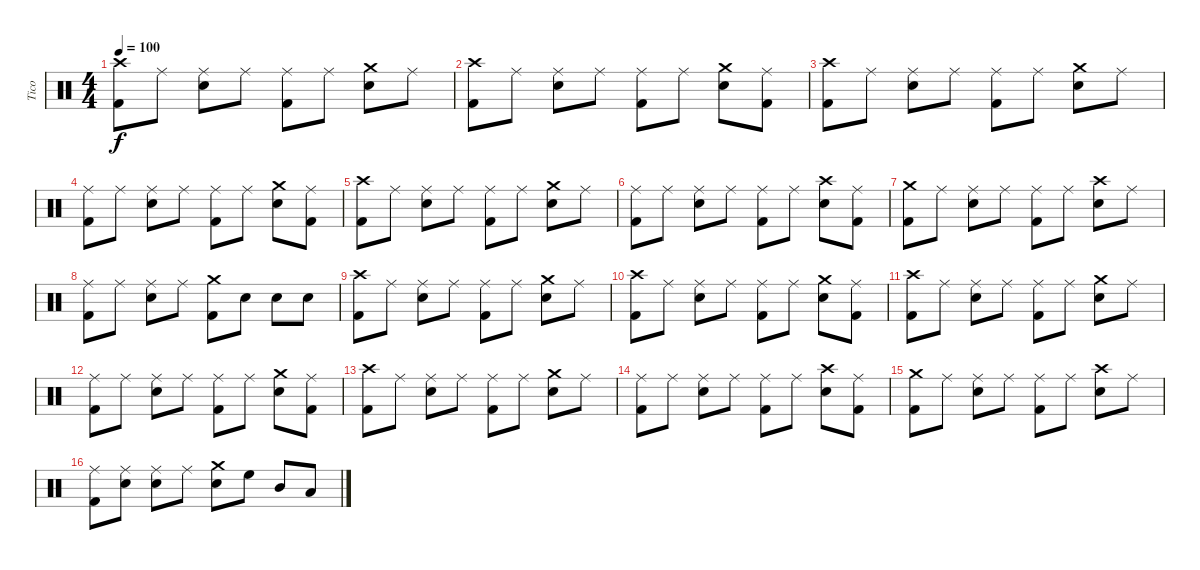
\track ("Tico" "Tico") {instrument percussion}
\staff {score}
\articulation defaults
\ts (4 4)
\tempo 100
\clef neutral
\ks c
("Crash high (hit)" "Kick (hit) 2").8{dy f} "Ride (middle)".8 ("Ride (middle)" "Snare (hit) 2").8 "Ride (middle)".8 ("Ride (middle)" "Kick (hit) 2").8 "Ride (middle)".8 ("Crash medium (hit)" "Snare (hit) 2").8 "Ride (middle)".8 |
("Crash high (hit)" "Kick (hit) 2").8 "Ride (middle)".8 ("Ride (middle)" "Snare (hit) 2").8 "Ride (middle)".8 ("Ride (middle)" "Kick (hit) 2").8 "Ride (middle)".8 ("Crash medium (hit)" "Snare (hit) 2").8 ("Ride (middle)" "Kick (hit) 2").8 |
("Crash high (hit)" "Kick (hit) 2").8 "Ride (middle)".8 ("Ride (middle)" "Snare (hit) 2").8 "Ride (middle)".8 ("Ride (middle)" "Kick (hit) 2").8 "Ride (middle)".8 ("Crash medium (hit)" "Snare (hit) 2").8 "Ride (middle)".8 |
("Ride (middle)" "Kick (hit) 2").8 "Ride (middle)".8 ("Ride (middle)" "Snare (hit) 2").8 "Ride (middle)".8 ("Ride (middle)" "Kick (hit) 2").8 "Ride (middle)".8 ("Crash medium (hit)" "Snare (hit) 2").8 ("Ride (middle)" "Kick (hit) 2").8 |
("Crash high (hit)" "Kick (hit) 2").8 "Ride (middle)".8 ("Ride (middle)" "Snare (hit) 2").8 "Ride (middle)".8 ("Ride (middle)" "Kick (hit) 2").8 "Ride (middle)".8 ("Crash medium (hit)" "Snare (hit) 2").8 "Ride (middle)".8 |
("Ride (middle)" "Kick (hit) 2").8 "Ride (middle)".8 ("Ride (middle)" "Snare (hit) 2").8 "Ride (middle)".8 ("Ride (middle)" "Kick (hit) 2").8 "Ride (middle)".8 ("Crash high (hit)" "Snare (hit) 2").8 ("Ride (middle)" "Kick (hit) 2").8 |
("Crash medium (hit)" "Kick (hit) 2").8 "Ride (middle)".8 ("Ride (middle)" "Snare (hit) 2").8 "Ride (middle)".8 ("Ride (middle)" "Kick (hit) 2").8 "Ride (middle)".8 ("Crash high (hit)" "Snare (hit) 2").8 "Ride (middle)".8 |
("Ride (middle)" "Kick (hit) 2").8 "Ride (middle)".8 ("Ride (middle)" "Snare (hit) 2").8 "Ride (middle)".8 ("Crash medium (hit)" "Kick (hit) 2").8 "Snare (hit) 2".8 "Snare (hit) 2".8 "Snare (hit) 2".8 |
("Crash high (hit)" "Kick (hit) 2").8 "Ride (middle)".8 ("Ride (middle)" "Snare (hit) 2").8 "Ride (middle)".8 ("Ride (middle)" "Kick (hit) 2").8 "Ride (middle)".8 ("Crash medium (hit)" "Snare (hit) 2").8 "Ride (middle)".8 |
("Crash high (hit)" "Kick (hit) 2").8 "Ride (middle)".8 ("Ride (middle)" "Snare (hit) 2").8 "Ride (middle)".8 ("Ride (middle)" "Kick (hit) 2").8 "Ride (middle)".8 ("Crash medium (hit)" "Snare (hit) 2").8 ("Ride (middle)" "Kick (hit) 2").8 |
("Crash high (hit)" "Kick (hit) 2").8 "Ride (middle)".8 ("Ride (middle)" "Snare (hit) 2").8 "Ride (middle)".8 ("Ride (middle)" "Kick (hit) 2").8 "Ride (middle)".8 ("Crash medium (hit)" "Snare (hit) 2").8 "Ride (middle)".8 |
("Ride (middle)" "Kick (hit) 2").8 "Ride (middle)".8 ("Ride (middle)" "Snare (hit) 2").8 "Ride (middle)".8 ("Ride (middle)" "Kick (hit) 2").8 "Ride (middle)".8 ("Crash medium (hit)" "Snare (hit) 2").8 ("Ride (middle)" "Kick (hit) 2").8 |
("Crash high (hit)" "Kick (hit) 2").8 "Ride (middle)".8 ("Ride (middle)" "Snare (hit) 2").8 "Ride (middle)".8 ("Ride (middle)" "Kick (hit) 2").8 "Ride (middle)".8 ("Crash medium (hit)" "Snare (hit) 2").8 "Ride (middle)".8 |
("Ride (middle)" "Kick (hit) 2").8 "Ride (middle)".8 ("Ride (middle)" "Snare (hit) 2").8 "Ride (middle)".8 ("Ride (middle)" "Kick (hit) 2").8 "Ride (middle)".8 ("Crash high (hit)" "Snare (hit) 2").8 ("Ride (middle)" "Kick (hit) 2").8 |
("Crash medium (hit)" "Kick (hit) 2").8 "Ride (middle)".8 ("Ride (middle)" "Snare (hit) 2").8 "Ride (middle)".8 ("Ride (middle)" "Kick (hit) 2").8 "Ride (middle)".8 ("Crash high (hit)" "Snare (hit) 2").8 "Ride (middle)".8 |
("Ride (middle)" "Kick (hit) 2").8 ("Ride (middle)" "Snare (hit) 2").8 ("Ride (middle)" "Snare (hit) 2").8 "Ride (middle)".8 ("Crash medium (hit)" "Snare (hit) 2").8 "High Floor Tom (hit)".8 "Mid Tom (hit)".8 "Low Tom (hit)".8
